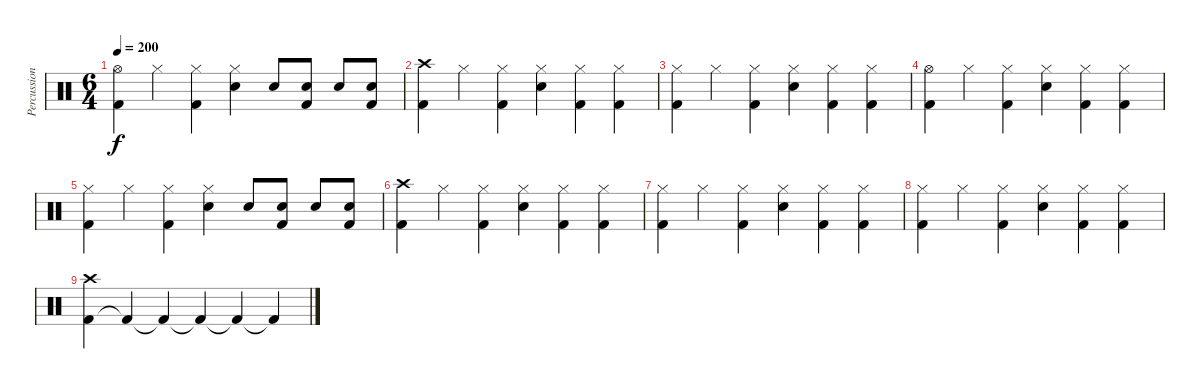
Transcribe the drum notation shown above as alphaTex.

\track ("Percussion" "Percussion") {instrument percussion}
\staff {score}
\articulation defaults
\ts (6 4)
\tempo 200
\clef neutral
\ks c
("Hi-Hat (open)" "Kick (hit) 2").4{dy f} "Hi-Hat (closed)".4 ("Hi-Hat (closed)" "Kick (hit) 2").4 ("Hi-Hat (closed)" "Electric Snare (hit)").4 "Electric Snare (hit)".8 ("Electric Snare (hit)" "Kick (hit) 2").8 "Electric Snare (hit)".8 ("Electric Snare (hit)" "Kick (hit) 2").8 |
("Crash high (hit)" "Kick (hit) 2").4 "Hi-Hat (closed)".4 ("Hi-Hat (closed)" "Kick (hit) 2").4 ("Hi-Hat (closed)" "Electric Snare (hit)").4 ("Hi-Hat (closed)" "Kick (hit) 2").4 ("Hi-Hat (closed)" "Kick (hit) 2").4 |
("Hi-Hat (closed)" "Kick (hit) 2").4 "Hi-Hat (closed)".4 ("Hi-Hat (closed)" "Kick (hit) 2").4 ("Hi-Hat (closed)" "Electric Snare (hit)").4 ("Hi-Hat (closed)" "Kick (hit) 2").4 ("Hi-Hat (closed)" "Kick (hit) 2").4 |
("Hi-Hat (open)" "Kick (hit) 2").4 "Hi-Hat (closed)".4 ("Hi-Hat (closed)" "Kick (hit) 2").4 ("Hi-Hat (closed)" "Electric Snare (hit)").4 ("Hi-Hat (closed)" "Kick (hit) 2").4 ("Hi-Hat (closed)" "Kick (hit) 2").4 |
("Hi-Hat (closed)" "Kick (hit) 2").4 "Hi-Hat (closed)".4 ("Hi-Hat (closed)" "Kick (hit) 2").4 ("Hi-Hat (closed)" "Electric Snare (hit)").4 "Electric Snare (hit)".8 ("Electric Snare (hit)" "Kick (hit) 2").8 "Electric Snare (hit)".8 ("Electric Snare (hit)" "Kick (hit) 2").8 |
("Crash high (hit)" "Kick (hit) 2").4 "Hi-Hat (closed)".4 ("Hi-Hat (closed)" "Kick (hit) 2").4 ("Hi-Hat (closed)" "Electric Snare (hit)").4 ("Hi-Hat (closed)" "Kick (hit) 2").4 ("Hi-Hat (closed)" "Kick (hit) 2").4 |
("Hi-Hat (closed)" "Kick (hit) 2").4 "Hi-Hat (closed)".4 ("Hi-Hat (closed)" "Kick (hit) 2").4 ("Hi-Hat (closed)" "Electric Snare (hit)").4 ("Hi-Hat (closed)" "Kick (hit) 2").4 ("Hi-Hat (closed)" "Kick (hit) 2").4 |
("Hi-Hat (closed)" "Kick (hit) 2").4 "Hi-Hat (closed)".4 ("Hi-Hat (closed)" "Kick (hit) 2").4 ("Hi-Hat (closed)" "Electric Snare (hit)").4 ("Hi-Hat (closed)" "Kick (hit) 2").4 ("Hi-Hat (closed)" "Kick (hit) 2").4 |
("Kick (hit) 2" "Crash high (hit)").4 "Kick (hit) 2"{t}.4 "Kick (hit) 2"{t}.4 "Kick (hit) 2"{t}.4 "Kick (hit) 2"{t}.4 "Kick (hit) 2"{t}.4
